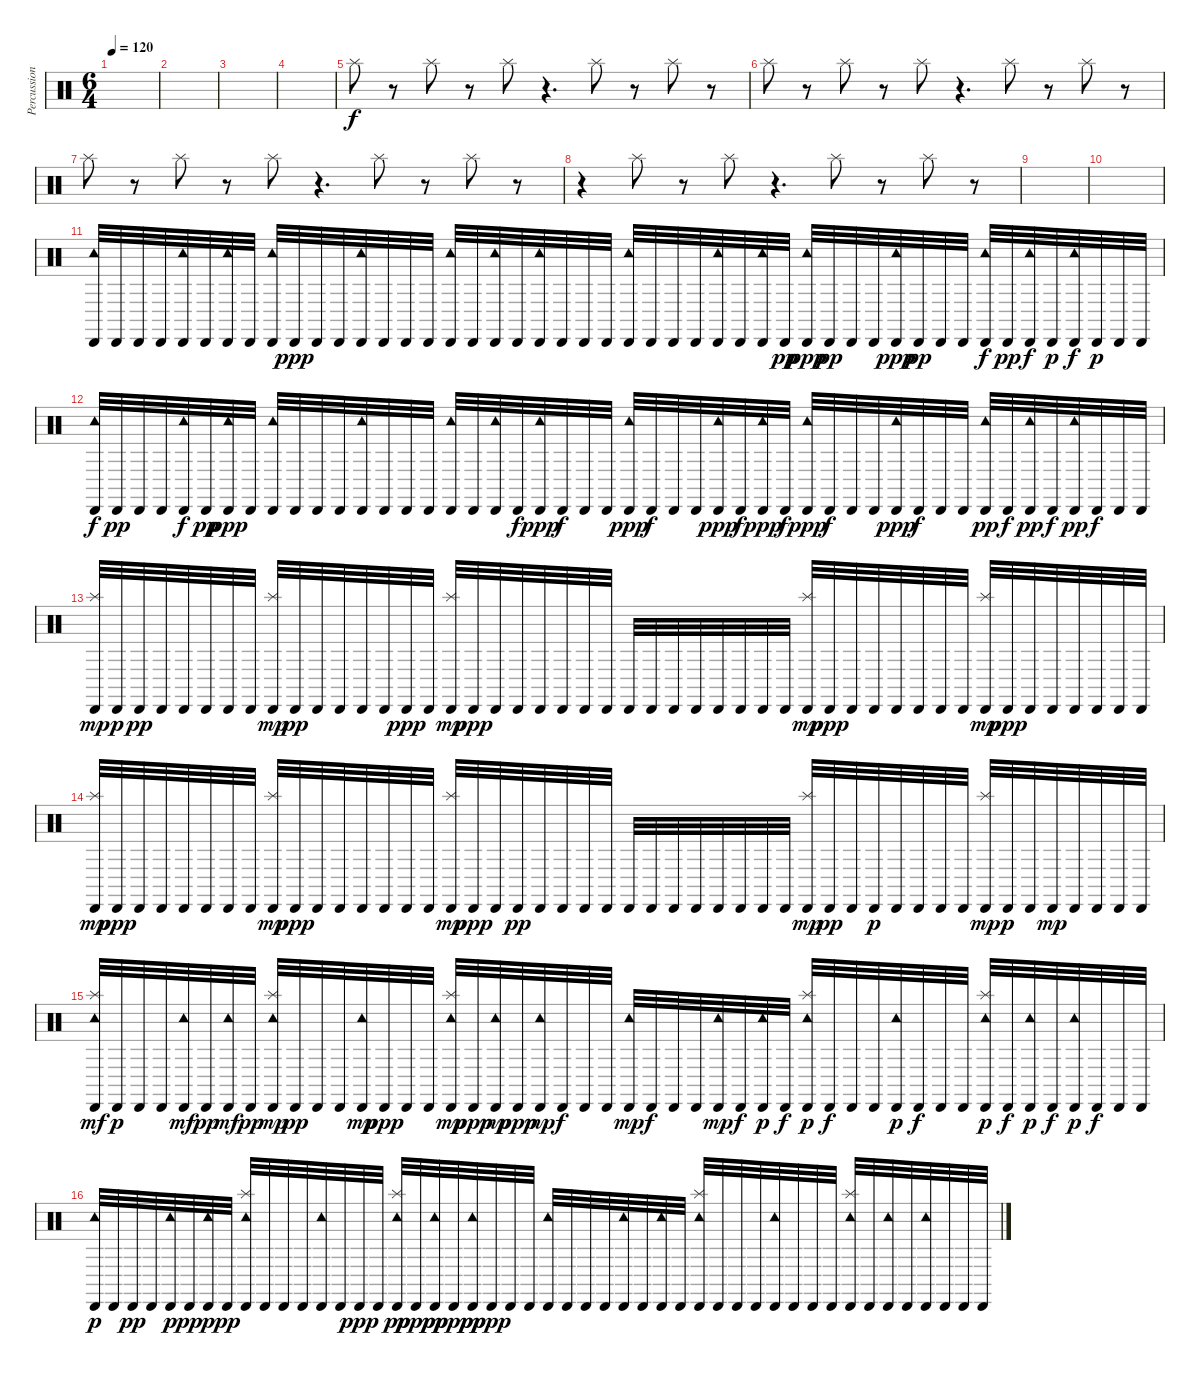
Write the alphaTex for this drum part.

\track ("Percussion" "Percussion") {instrument percussion}
\staff {score}
\articulation defaults
\ts (6 4)
\tempo 120
\clef neutral
\ks c
|
|
|
|
"Splash (hit)".8 r.8 "Splash (hit)".8 r.8 "Splash (hit)".8 r.4{d} "Splash (hit)".8 r.8 "Splash (hit)".8 r.8 |
"Splash (hit)".8 r.8 "Splash (hit)".8 r.8 "Splash (hit)".8 r.4{d} "Splash (hit)".8 r.8 "Splash (hit)".8 r.8 |
"Splash (hit)".8 r.8 "Splash (hit)".8 r.8 "Splash (hit)".8 r.4{d} "Splash (hit)".8 r.8 "Splash (hit)".8 r.8 |
r.4 "Splash (hit)".8 r.8 "Splash (hit)".8 r.4{d} "Splash (hit)".8 r.8 "Splash (hit)".8 r.8 |
|
|
("Cabasa (hit)" "Tambourine (hit)").32{dy f} "Cabasa (hit)".32 "Cabasa (hit)".32 "Cabasa (hit)".32 ("Cabasa (hit)" "Tambourine (hit)").32 "Cabasa (hit)".32 ("Cabasa (hit)" "Tambourine (hit)").32 "Cabasa (hit)".32 ("Cabasa (hit)" "Tambourine (hit)").32 "Cabasa (hit)".32{dy ppp} "Cabasa (hit)".32 "Cabasa (hit)".32 ("Cabasa (hit)" "Tambourine (hit)").32 "Cabasa (hit)".32 "Cabasa (hit)".32 "Cabasa (hit)".32 ("Cabasa (hit)" "Tambourine (hit)").32 "Cabasa (hit)".32 ("Cabasa (hit)" "Tambourine (hit)").32 "Cabasa (hit)".32 ("Cabasa (hit)" "Tambourine (hit)").32 "Cabasa (hit)".32 "Cabasa (hit)".32 "Cabasa (hit)".32 ("Cabasa (hit)" "Tambourine (hit)").32 "Cabasa (hit)".32 "Cabasa (hit)".32 "Cabasa (hit)".32 ("Cabasa (hit)" "Tambourine (hit)").32 "Cabasa (hit)".32 ("Cabasa (hit)" "Tambourine (hit)").32 "Cabasa (hit)".32{dy pp} ("Cabasa (hit)" "Tambourine (hit)").32{dy ppp} "Cabasa (hit)".32{dy pp} "Cabasa (hit)".32 "Cabasa (hit)".32 ("Cabasa (hit)" "Tambourine (hit)").32{dy ppp} "Cabasa (hit)".32{dy pp} "Cabasa (hit)".32 "Cabasa (hit)".32 ("Cabasa (hit)" "Tambourine (hit)").32{dy f} "Cabasa (hit)".32{dy pp} ("Cabasa (hit)" "Tambourine (hit)").32{dy f} "Cabasa (hit)".32{dy p} ("Cabasa (hit)" "Tambourine (hit)").32{dy f} "Cabasa (hit)".32{dy p} "Cabasa (hit)".32 "Cabasa (hit)".32 |
("Cabasa (hit)" "Tambourine (hit)").32{dy f} "Cabasa (hit)".32{dy pp} "Cabasa (hit)".32 "Cabasa (hit)".32 ("Cabasa (hit)" "Tambourine (hit)").32{dy f} "Cabasa (hit)".32{dy pp} ("Cabasa (hit)" "Tambourine (hit)").32{dy ppp} "Cabasa (hit)".32 ("Cabasa (hit)" "Tambourine (hit)").32 "Cabasa (hit)".32 "Cabasa (hit)".32 "Cabasa (hit)".32 ("Cabasa (hit)" "Tambourine (hit)").32 "Cabasa (hit)".32 "Cabasa (hit)".32 "Cabasa (hit)".32 ("Cabasa (hit)" "Tambourine (hit)").32 "Cabasa (hit)".32 ("Cabasa (hit)" "Tambourine (hit)").32 "Cabasa (hit)".32{dy f} ("Cabasa (hit)" "Tambourine (hit)").32{dy ppp} "Cabasa (hit)".32{dy f} "Cabasa (hit)".32 "Cabasa (hit)".32 ("Cabasa (hit)" "Tambourine (hit)").32{dy ppp} "Cabasa (hit)".32{dy f} "Cabasa (hit)".32 "Cabasa (hit)".32 ("Cabasa (hit)" "Tambourine (hit)").32{dy ppp} "Cabasa (hit)".32{dy f} ("Cabasa (hit)" "Tambourine (hit)").32{dy ppp} "Cabasa (hit)".32{dy f} ("Cabasa (hit)" "Tambourine (hit)").32{dy ppp} "Cabasa (hit)".32{dy f} "Cabasa (hit)".32 "Cabasa (hit)".32 ("Cabasa (hit)" "Tambourine (hit)").32{dy ppp} "Cabasa (hit)".32{dy f} "Cabasa (hit)".32 "Cabasa (hit)".32 ("Cabasa (hit)" "Tambourine (hit)").32{dy pp} "Cabasa (hit)".32{dy f} ("Cabasa (hit)" "Tambourine (hit)").32{dy pp} "Cabasa (hit)".32{dy f} ("Cabasa (hit)" "Tambourine (hit)").32{dy pp} "Cabasa (hit)".32{dy f} "Cabasa (hit)".32 "Cabasa (hit)".32 |
("Cabasa (hit)" "Splash (hit)").32{dy mp} "Cabasa (hit)".32{dy p} "Cabasa (hit)".32{dy pp} "Cabasa (hit)".32 "Cabasa (hit)".32 "Cabasa (hit)".32 "Cabasa (hit)".32 "Cabasa (hit)".32 ("Cabasa (hit)" "Splash (hit)").32{dy mp} "Cabasa (hit)".32{dy pp} "Cabasa (hit)".32 "Cabasa (hit)".32 "Cabasa (hit)".32 "Cabasa (hit)".32 "Cabasa (hit)".32{dy ppp} "Cabasa (hit)".32 ("Cabasa (hit)" "Splash (hit)").32{dy mp} "Cabasa (hit)".32{dy ppp} "Cabasa (hit)".32 "Cabasa (hit)".32 "Cabasa (hit)".32 "Cabasa (hit)".32 "Cabasa (hit)".32 "Cabasa (hit)".32 "Cabasa (hit)".32 "Cabasa (hit)".32 "Cabasa (hit)".32 "Cabasa (hit)".32 "Cabasa (hit)".32 "Cabasa (hit)".32 "Cabasa (hit)".32 "Cabasa (hit)".32 ("Cabasa (hit)" "Splash (hit)").32{dy mp} "Cabasa (hit)".32{dy ppp} "Cabasa (hit)".32 "Cabasa (hit)".32 "Cabasa (hit)".32 "Cabasa (hit)".32 "Cabasa (hit)".32 "Cabasa (hit)".32 ("Cabasa (hit)" "Splash (hit)").32{dy mp} "Cabasa (hit)".32{dy ppp} "Cabasa (hit)".32 "Cabasa (hit)".32 "Cabasa (hit)".32 "Cabasa (hit)".32 "Cabasa (hit)".32 "Cabasa (hit)".32 |
("Cabasa (hit)" "Splash (hit)").32{dy mp} "Cabasa (hit)".32{dy ppp} "Cabasa (hit)".32 "Cabasa (hit)".32 "Cabasa (hit)".32 "Cabasa (hit)".32 "Cabasa (hit)".32 "Cabasa (hit)".32 ("Cabasa (hit)" "Splash (hit)").32{dy mp} "Cabasa (hit)".32{dy ppp} "Cabasa (hit)".32 "Cabasa (hit)".32 "Cabasa (hit)".32 "Cabasa (hit)".32 "Cabasa (hit)".32 "Cabasa (hit)".32 ("Cabasa (hit)" "Splash (hit)").32{dy mp} "Cabasa (hit)".32{dy ppp} "Cabasa (hit)".32 "Cabasa (hit)".32{dy pp} "Cabasa (hit)".32 "Cabasa (hit)".32 "Cabasa (hit)".32 "Cabasa (hit)".32 "Cabasa (hit)".32 "Cabasa (hit)".32 "Cabasa (hit)".32 "Cabasa (hit)".32 "Cabasa (hit)".32 "Cabasa (hit)".32 "Cabasa (hit)".32 "Cabasa (hit)".32 ("Cabasa (hit)" "Splash (hit)").32{dy mp} "Cabasa (hit)".32{dy pp} "Cabasa (hit)".32 "Cabasa (hit)".32{dy p} "Cabasa (hit)".32 "Cabasa (hit)".32 "Cabasa (hit)".32 "Cabasa (hit)".32 ("Cabasa (hit)" "Splash (hit)").32{dy mp} "Cabasa (hit)".32{dy p} "Cabasa (hit)".32 "Cabasa (hit)".32{dy mp} "Cabasa (hit)".32 "Cabasa (hit)".32 "Cabasa (hit)".32 "Cabasa (hit)".32 |
("Cabasa (hit)" "Splash (hit)" "Tambourine (hit)").32{dy mf} "Cabasa (hit)".32{dy p} "Cabasa (hit)".32 "Cabasa (hit)".32 ("Cabasa (hit)" "Tambourine (hit)").32{dy mf} "Cabasa (hit)".32{dy pp} ("Cabasa (hit)" "Tambourine (hit)").32{dy mf} "Cabasa (hit)".32{dy pp} ("Cabasa (hit)" "Splash (hit)" "Tambourine (hit)").32{dy mp} "Cabasa (hit)".32{dy pp} "Cabasa (hit)".32 "Cabasa (hit)".32 ("Cabasa (hit)" "Tambourine (hit)").32{dy mp} "Cabasa (hit)".32{dy ppp} "Cabasa (hit)".32 "Cabasa (hit)".32 ("Cabasa (hit)" "Splash (hit)" "Tambourine (hit)").32{dy mp} "Cabasa (hit)".32{dy ppp} ("Cabasa (hit)" "Tambourine (hit)").32{dy mp} "Cabasa (hit)".32{dy ppp} ("Cabasa (hit)" "Tambourine (hit)").32{dy mp} "Cabasa (hit)".32{dy f} "Cabasa (hit)".32 "Cabasa (hit)".32 ("Cabasa (hit)" "Tambourine (hit)").32{dy mp} "Cabasa (hit)".32{dy f} "Cabasa (hit)".32 "Cabasa (hit)".32 ("Cabasa (hit)" "Tambourine (hit)").32{dy mp} "Cabasa (hit)".32{dy f} ("Cabasa (hit)" "Tambourine (hit)").32{dy p} "Cabasa (hit)".32{dy f} ("Cabasa (hit)" "Splash (hit)" "Tambourine (hit)").32{dy p} "Cabasa (hit)".32{dy f} "Cabasa (hit)".32 "Cabasa (hit)".32 ("Cabasa (hit)" "Tambourine (hit)").32{dy p} "Cabasa (hit)".32{dy f} "Cabasa (hit)".32 "Cabasa (hit)".32 ("Cabasa (hit)" "Splash (hit)" "Tambourine (hit)").32{dy p} "Cabasa (hit)".32{dy f} ("Cabasa (hit)" "Tambourine (hit)").32{dy p} "Cabasa (hit)".32{dy f} ("Cabasa (hit)" "Tambourine (hit)").32{dy p} "Cabasa (hit)".32{dy f} "Cabasa (hit)".32 "Cabasa (hit)".32 |
("Cabasa (hit)" "Tambourine (hit)").32{dy p} "Cabasa (hit)".32 "Cabasa (hit)".32{dy pp} "Cabasa (hit)".32 ("Cabasa (hit)" "Tambourine (hit)").32{dy p} "Cabasa (hit)".32{dy pp} ("Cabasa (hit)" "Tambourine (hit)").32{dy p} "Cabasa (hit)".32{dy pp} ("Cabasa (hit)" "Splash (hit)" "Tambourine (hit)").32 "Cabasa (hit)".32 "Cabasa (hit)".32 "Cabasa (hit)".32 ("Cabasa (hit)" "Tambourine (hit)").32 "Cabasa (hit)".32 "Cabasa (hit)".32{dy ppp} "Cabasa (hit)".32 ("Cabasa (hit)" "Splash (hit)" "Tambourine (hit)").32{dy pp} "Cabasa (hit)".32{dy ppp} ("Cabasa (hit)" "Tambourine (hit)").32{dy pp} "Cabasa (hit)".32{dy ppp} ("Cabasa (hit)" "Tambourine (hit)").32{dy pp} "Cabasa (hit)".32{dy ppp} "Cabasa (hit)".32 "Cabasa (hit)".32 ("Cabasa (hit)" "Tambourine (hit)").32 "Cabasa (hit)".32 "Cabasa (hit)".32 "Cabasa (hit)".32 ("Cabasa (hit)" "Tambourine (hit)").32 "Cabasa (hit)".32 ("Cabasa (hit)" "Tambourine (hit)").32 "Cabasa (hit)".32 ("Cabasa (hit)" "Splash (hit)" "Tambourine (hit)").32 "Cabasa (hit)".32 "Cabasa (hit)".32 "Cabasa (hit)".32 ("Cabasa (hit)" "Tambourine (hit)").32 "Cabasa (hit)".32 "Cabasa (hit)".32 "Cabasa (hit)".32 ("Cabasa (hit)" "Splash (hit)" "Tambourine (hit)").32 "Cabasa (hit)".32 ("Cabasa (hit)" "Tambourine (hit)").32 "Cabasa (hit)".32 ("Cabasa (hit)" "Tambourine (hit)").32 "Cabasa (hit)".32 "Cabasa (hit)".32 "Cabasa (hit)".32
